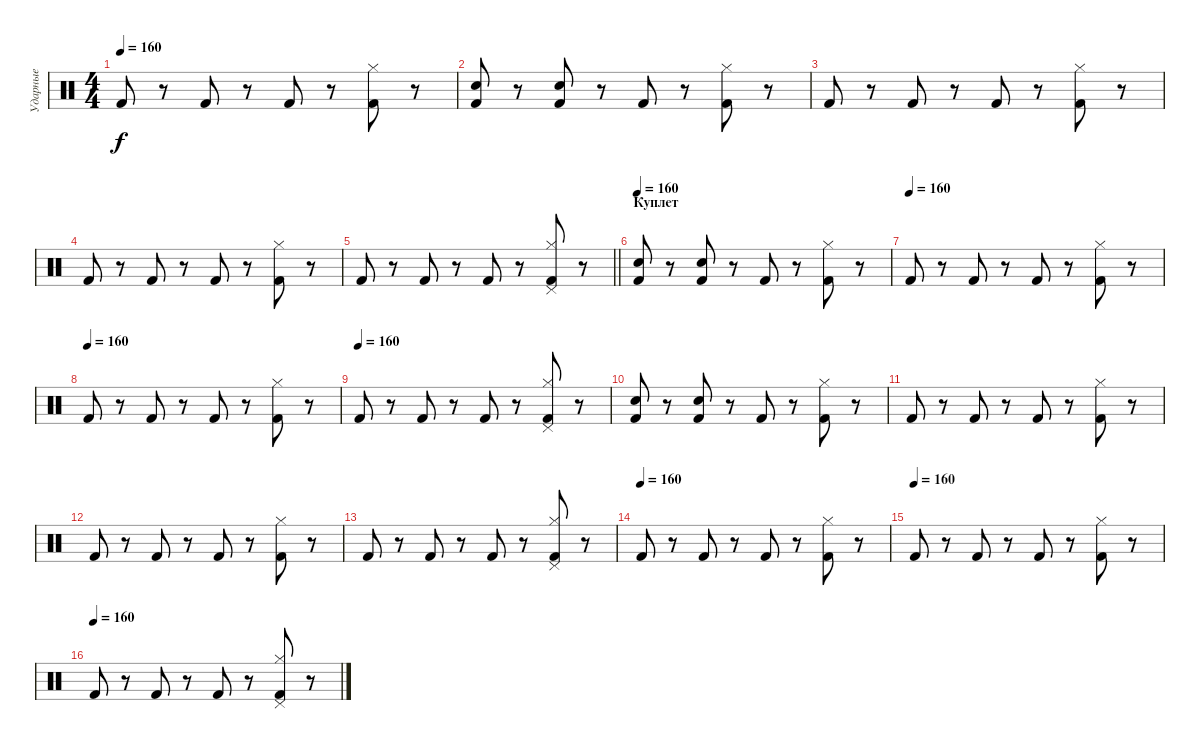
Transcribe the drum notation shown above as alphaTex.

\track ("Ударные" "Ударные") {instrument percussion}
\staff {score}
\articulation defaults
\ts (4 4)
\tempo 160
\clef neutral
\ks c "Kick (hit) 2".8{dy f}
r.8 "Kick (hit) 2".8 r.8 "Kick (hit) 2".8 r.8 ("Kick (hit) 2" "Hi-Hat (closed)").8 r.8 |
("Kick (hit) 2" "Snare (hit)").8 r.8 ("Kick (hit) 2" "Snare (hit)").8 r.8 "Kick (hit) 2".8 r.8 ("Kick (hit) 2" "Hi-Hat (closed)").8 r.8 |
"Kick (hit) 2".8 r.8 "Kick (hit) 2".8 r.8 "Kick (hit) 2".8 r.8 ("Kick (hit) 2" "Hi-Hat (closed)").8 r.8 |
"Kick (hit) 2".8 r.8 "Kick (hit) 2".8 r.8 "Kick (hit) 2".8 r.8 ("Kick (hit) 2" "Hi-Hat (closed)").8 r.8 |
\barLineRight lightlight "Kick (hit) 2".8
r.8 "Kick (hit) 2".8 r.8 "Kick (hit) 2".8 r.8 ("Kick (hit) 2" "Pedal Hi-Hat (hit)" "Hi-Hat (closed)").8 r.8 |
\section ("" "Куплет")
\tempo 160
("Kick (hit) 2" "Snare (hit)").8 r.8 ("Kick (hit) 2" "Snare (hit)").8 r.8 "Kick (hit) 2".8 r.8 ("Kick (hit) 2" "Hi-Hat (closed)").8 r.8 |
\tempo (160)
"Kick (hit) 2".8 r.8 "Kick (hit) 2".8 r.8 "Kick (hit) 2".8 r.8 ("Kick (hit) 2" "Hi-Hat (closed)").8 r.8 |
\tempo (160)
"Kick (hit) 2".8 r.8 "Kick (hit) 2".8 r.8 "Kick (hit) 2".8 r.8 ("Kick (hit) 2" "Hi-Hat (closed)").8 r.8 |
\tempo (160)
"Kick (hit) 2".8 r.8 "Kick (hit) 2".8 r.8 "Kick (hit) 2".8 r.8 ("Kick (hit) 2" "Pedal Hi-Hat (hit)" "Hi-Hat (closed)").8 r.8 |
("Kick (hit) 2" "Snare (hit)").8 r.8 ("Kick (hit) 2" "Snare (hit)").8 r.8 "Kick (hit) 2".8 r.8 ("Kick (hit) 2" "Hi-Hat (closed)").8 r.8 |
"Kick (hit) 2".8 r.8 "Kick (hit) 2".8 r.8 "Kick (hit) 2".8 r.8 ("Kick (hit) 2" "Hi-Hat (closed)").8 r.8 |
"Kick (hit) 2".8 r.8 "Kick (hit) 2".8 r.8 "Kick (hit) 2".8 r.8 ("Kick (hit) 2" "Hi-Hat (closed)").8 r.8 |
"Kick (hit) 2".8 r.8 "Kick (hit) 2".8 r.8 "Kick (hit) 2".8 r.8 ("Kick (hit) 2" "Pedal Hi-Hat (hit)" "Hi-Hat (closed)").8 r.8 |
\tempo (160)
"Kick (hit) 2".8 r.8 "Kick (hit) 2".8 r.8 "Kick (hit) 2".8 r.8 ("Kick (hit) 2" "Hi-Hat (closed)").8 r.8 |
\tempo (160)
"Kick (hit) 2".8 r.8 "Kick (hit) 2".8 r.8 "Kick (hit) 2".8 r.8 ("Kick (hit) 2" "Hi-Hat (closed)").8 r.8 |
\tempo (160)
"Kick (hit) 2".8 r.8 "Kick (hit) 2".8 r.8 "Kick (hit) 2".8 r.8 ("Kick (hit) 2" "Pedal Hi-Hat (hit)" "Hi-Hat (closed)").8 r.8
